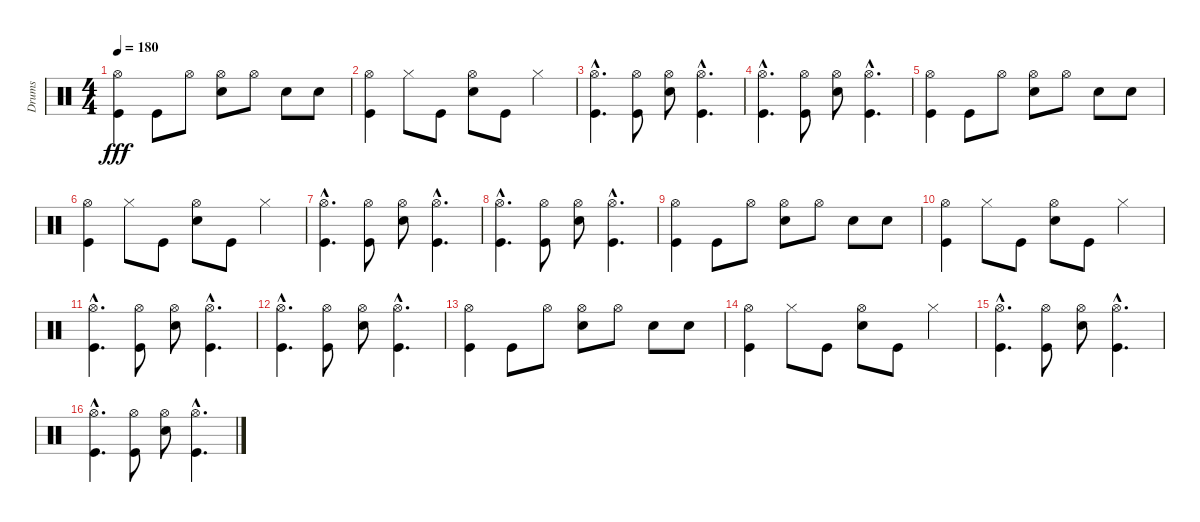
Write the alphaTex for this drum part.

\track ("Drums" "Drums") {instrument percussion}
\staff {score}
\articulation defaults
\ts (4 4)
\tempo 180
\clef neutral
\ks c
("Hi-Hat (open)" "Kick (hit)").4{dy fff} "Kick (hit)".8 "Hi-Hat (open)".8 ("Hi-Hat (open)" "Snare (hit) 2").8 "Hi-Hat (open)".8 "Snare (hit) 2".8 "Snare (hit) 2".8 |
("Hi-Hat (open)" "Kick (hit)").4 "Hi-Hat (closed)".8 "Kick (hit)".8 ("Hi-Hat (open)" "Snare (hit) 2").8 "Kick (hit)".8 "Hi-Hat (closed)".4 |
("Hi-Hat (open)"{hac} "Kick (hit)"{hac}).4{d} ("Hi-Hat (open)" "Kick (hit)").8 ("Hi-Hat (open)" "Snare (hit) 2").8 ("Hi-Hat (open)"{hac} "Kick (hit)"{hac}).4{d} |
("Hi-Hat (open)"{hac} "Kick (hit)"{hac}).4{d} ("Hi-Hat (open)" "Kick (hit)").8 ("Hi-Hat (open)" "Snare (hit) 2").8 ("Hi-Hat (open)"{hac} "Kick (hit)"{hac}).4{d} |
("Hi-Hat (open)" "Kick (hit)").4 "Kick (hit)".8 "Hi-Hat (open)".8 ("Hi-Hat (open)" "Snare (hit) 2").8 "Hi-Hat (open)".8 "Snare (hit) 2".8 "Snare (hit) 2".8 |
("Hi-Hat (open)" "Kick (hit)").4 "Hi-Hat (closed)".8 "Kick (hit)".8 ("Hi-Hat (open)" "Snare (hit) 2").8 "Kick (hit)".8 "Hi-Hat (closed)".4 |
("Hi-Hat (open)"{hac} "Kick (hit)"{hac}).4{d} ("Hi-Hat (open)" "Kick (hit)").8 ("Hi-Hat (open)" "Snare (hit) 2").8 ("Hi-Hat (open)"{hac} "Kick (hit)"{hac}).4{d} |
("Hi-Hat (open)"{hac} "Kick (hit)"{hac}).4{d} ("Hi-Hat (open)" "Kick (hit)").8 ("Hi-Hat (open)" "Snare (hit) 2").8 ("Hi-Hat (open)"{hac} "Kick (hit)"{hac}).4{d} |
("Hi-Hat (open)" "Kick (hit)").4 "Kick (hit)".8 "Hi-Hat (open)".8 ("Hi-Hat (open)" "Snare (hit) 2").8 "Hi-Hat (open)".8 "Snare (hit) 2".8 "Snare (hit) 2".8 |
("Hi-Hat (open)" "Kick (hit)").4 "Hi-Hat (closed)".8 "Kick (hit)".8 ("Hi-Hat (open)" "Snare (hit) 2").8 "Kick (hit)".8 "Hi-Hat (closed)".4 |
("Hi-Hat (open)"{hac} "Kick (hit)"{hac}).4{d} ("Hi-Hat (open)" "Kick (hit)").8 ("Hi-Hat (open)" "Snare (hit) 2").8 ("Hi-Hat (open)"{hac} "Kick (hit)"{hac}).4{d} |
("Hi-Hat (open)"{hac} "Kick (hit)"{hac}).4{d} ("Hi-Hat (open)" "Kick (hit)").8 ("Hi-Hat (open)" "Snare (hit) 2").8 ("Hi-Hat (open)"{hac} "Kick (hit)"{hac}).4{d} |
("Hi-Hat (open)" "Kick (hit)").4 "Kick (hit)".8 "Hi-Hat (open)".8 ("Hi-Hat (open)" "Snare (hit) 2").8 "Hi-Hat (open)".8 "Snare (hit) 2".8 "Snare (hit) 2".8 |
("Hi-Hat (open)" "Kick (hit)").4 "Hi-Hat (closed)".8 "Kick (hit)".8 ("Hi-Hat (open)" "Snare (hit) 2").8 "Kick (hit)".8 "Hi-Hat (closed)".4 |
("Hi-Hat (open)"{hac} "Kick (hit)"{hac}).4{d} ("Hi-Hat (open)" "Kick (hit)").8 ("Hi-Hat (open)" "Snare (hit) 2").8 ("Hi-Hat (open)"{hac} "Kick (hit)"{hac}).4{d} |
("Hi-Hat (open)"{hac} "Kick (hit)"{hac}).4{d} ("Hi-Hat (open)" "Kick (hit)").8 ("Hi-Hat (open)" "Snare (hit) 2").8 ("Hi-Hat (open)"{hac} "Kick (hit)"{hac}).4{d}
